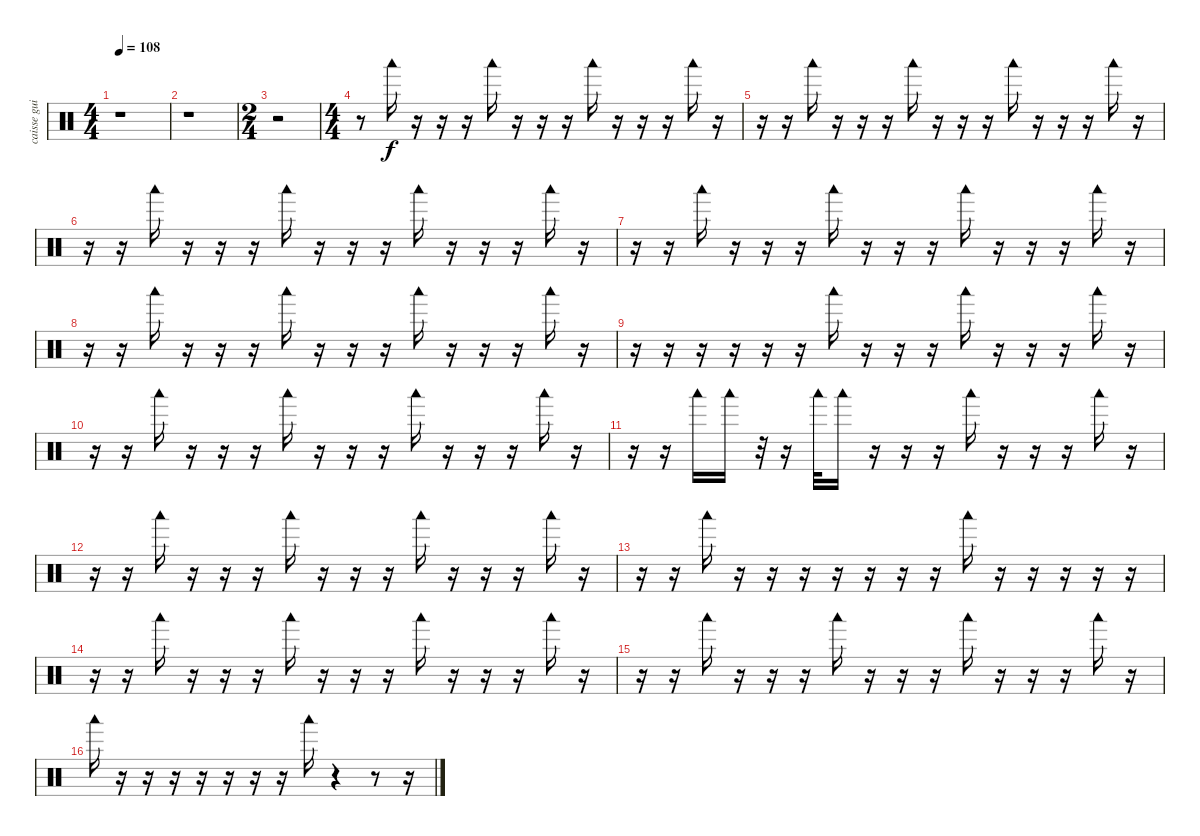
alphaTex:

\track ("caisse guitare Di Meola" "caisse gui") {instrument percussion}
\staff {score}
\articulation defaults
\ts (4 4)
\tempo 108
\clef neutral
\ks c
r.1{dy f} |
r.1 |
\ts (2 4)
r.2 |
\ts (4 4)
r.8 "Woodblock low (hit)".16 r.16 r.16 r.16 "Woodblock low (hit)".16 r.16 r.16 r.16 "Woodblock low (hit)".16 r.16 r.16 r.16 "Woodblock low (hit)".16 r.16 |
r.16 r.16 "Woodblock low (hit)".16 r.16 r.16 r.16 "Woodblock low (hit)".16 r.16 r.16 r.16 "Woodblock low (hit)".16 r.16 r.16 r.16 "Woodblock low (hit)".16 r.16 |
r.16 r.16 "Woodblock low (hit)".16 r.16 r.16 r.16 "Woodblock low (hit)".16 r.16 r.16 r.16 "Woodblock low (hit)".16 r.16 r.16 r.16 "Woodblock low (hit)".16 r.16 |
r.16 r.16 "Woodblock low (hit)".16 r.16 r.16 r.16 "Woodblock low (hit)".16 r.16 r.16 r.16 "Woodblock low (hit)".16 r.16 r.16 r.16 "Woodblock low (hit)".16 r.16 |
r.16 r.16 "Woodblock low (hit)".16 r.16 r.16 r.16 "Woodblock low (hit)".16 r.16 r.16 r.16 "Woodblock low (hit)".16 r.16 r.16 r.16 "Woodblock low (hit)".16 r.16 |
r.16 r.16 r.16 r.16 r.16 r.16 "Woodblock low (hit)".16 r.16 r.16 r.16 "Woodblock low (hit)".16 r.16 r.16 r.16 "Woodblock low (hit)".16 r.16 |
r.16 r.16 "Woodblock low (hit)".16 r.16 r.16 r.16 "Woodblock low (hit)".16 r.16 r.16 r.16 "Woodblock low (hit)".16 r.16 r.16 r.16 "Woodblock low (hit)".16 r.16 |
r.16 r.16 "Woodblock low (hit)".16 "Woodblock low (hit)".16 r.32 r.16 "Woodblock low (hit)".32 "Woodblock low (hit)".16 r.16 r.16 r.16 "Woodblock low (hit)".16 r.16 r.16 r.16 "Woodblock low (hit)".16 r.16 |
r.16 r.16 "Woodblock low (hit)".16 r.16 r.16 r.16 "Woodblock low (hit)".16 r.16 r.16 r.16 "Woodblock low (hit)".16 r.16 r.16 r.16 "Woodblock low (hit)".16 r.16 |
r.16 r.16 "Woodblock low (hit)".16 r.16 r.16 r.16 r.16 r.16 r.16 r.16 "Woodblock low (hit)".16 r.16 r.16 r.16 r.16 r.16 |
r.16 r.16 "Woodblock low (hit)".16 r.16 r.16 r.16 "Woodblock low (hit)".16 r.16 r.16 r.16 "Woodblock low (hit)".16 r.16 r.16 r.16 "Woodblock low (hit)".16 r.16 |
r.16 r.16 "Woodblock low (hit)".16 r.16 r.16 r.16 "Woodblock low (hit)".16 r.16 r.16 r.16 "Woodblock low (hit)".16 r.16 r.16 r.16 "Woodblock low (hit)".16 r.16 |
"Woodblock low (hit)".16 r.16 r.16 r.16 r.16 r.16 r.16 r.16 "Woodblock low (hit)".16 r.4 r.8 r.16
